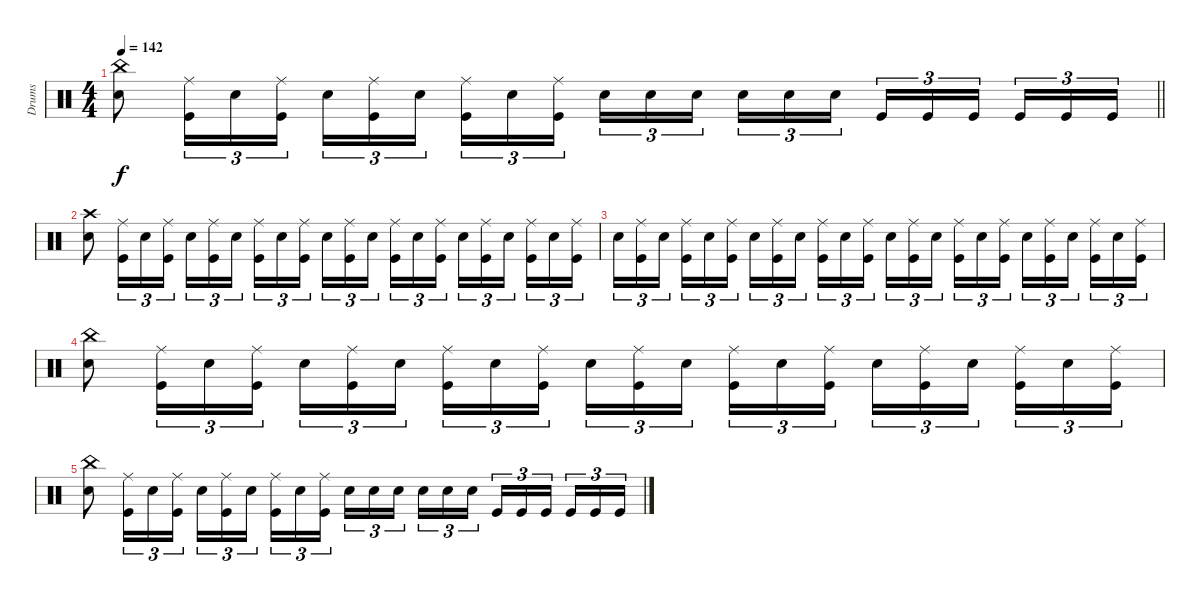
\track ("Drums" "Drums") {instrument percussion}
\staff
\articulation defaults
\ts (4 4)
\tempo 142
\clef neutral
\barLineRight lightlight
\ks c
("China (hit)" "Electric Snare (hit)").8{dy f} ("Ride (middle)" "Kick (hit)").16{tu (3 2)} "Electric Snare (hit)".16{tu (3 2)} ("Ride (middle)" "Kick (hit)").16{tu (3 2)} "Electric Snare (hit)".16{tu (3 2)} ("Ride (middle)" "Kick (hit)").16{tu (3 2)} "Electric Snare (hit)".16{tu (3 2) beam splitsecondary} ("Ride (middle)" "Kick (hit)").16{tu (3 2)} "Electric Snare (hit)".16{tu (3 2)} ("Ride (middle)" "Kick (hit)").16{tu (3 2)} "Electric Snare (hit)".16{tu (3 2)} "Electric Snare (hit)".16{tu (3 2)} "Electric Snare (hit)".16{tu (3 2) beam splitsecondary} "Electric Snare (hit)".16{tu (3 2)} "Electric Snare (hit)".16{tu (3 2)} "Electric Snare (hit)".16{tu (3 2)} "Kick (hit)".16{tu (3 2)} "Kick (hit)".16{tu (3 2)} "Kick (hit)".16{tu (3 2) beam splitsecondary} "Kick (hit)".16{tu (3 2)} "Kick (hit)".16{tu (3 2)} "Kick (hit)".16{tu (3 2)} |
("Crash high (hit)" "Electric Snare (hit)").8 ("Ride (middle)" "Kick (hit)").16{tu (3 2)} "Electric Snare (hit)".16{tu (3 2)} ("Ride (middle)" "Kick (hit)").16{tu (3 2)} "Electric Snare (hit)".16{tu (3 2)} ("Ride (middle)" "Kick (hit)").16{tu (3 2)} "Electric Snare (hit)".16{tu (3 2) beam splitsecondary} ("Ride (middle)" "Kick (hit)").16{tu (3 2)} "Electric Snare (hit)".16{tu (3 2)} ("Ride (middle)" "Kick (hit)").16{tu (3 2)} "Electric Snare (hit)".16{tu (3 2)} ("Ride (middle)" "Kick (hit)").16{tu (3 2)} "Electric Snare (hit)".16{tu (3 2) beam splitsecondary} ("Ride (middle)" "Kick (hit)").16{tu (3 2)} "Electric Snare (hit)".16{tu (3 2)} ("Ride (middle)" "Kick (hit)").16{tu (3 2)} "Electric Snare (hit)".16{tu (3 2)} ("Ride (middle)" "Kick (hit)").16{tu (3 2)} "Electric Snare (hit)".16{tu (3 2) beam splitsecondary} ("Ride (middle)" "Kick (hit)").16{tu (3 2)} "Electric Snare (hit)".16{tu (3 2)} ("Ride (middle)" "Kick (hit)").16{tu (3 2)} |
"Electric Snare (hit)".16{tu (3 2)} ("Ride (middle)" "Kick (hit)").16{tu (3 2)} "Electric Snare (hit)".16{tu (3 2) beam splitsecondary} ("Ride (middle)" "Kick (hit)").16{tu (3 2)} "Electric Snare (hit)".16{tu (3 2)} ("Ride (middle)" "Kick (hit)").16{tu (3 2)} "Electric Snare (hit)".16{tu (3 2)} ("Ride (middle)" "Kick (hit)").16{tu (3 2)} "Electric Snare (hit)".16{tu (3 2) beam splitsecondary} ("Ride (middle)" "Kick (hit)").16{tu (3 2)} "Electric Snare (hit)".16{tu (3 2)} ("Ride (middle)" "Kick (hit)").16{tu (3 2)} "Electric Snare (hit)".16{tu (3 2)} ("Ride (middle)" "Kick (hit)").16{tu (3 2)} "Electric Snare (hit)".16{tu (3 2) beam splitsecondary} ("Ride (middle)" "Kick (hit)").16{tu (3 2)} "Electric Snare (hit)".16{tu (3 2)} ("Ride (middle)" "Kick (hit)").16{tu (3 2)} "Electric Snare (hit)".16{tu (3 2)} ("Ride (middle)" "Kick (hit)").16{tu (3 2)} "Electric Snare (hit)".16{tu (3 2) beam splitsecondary} ("Ride (middle)" "Kick (hit)").16{tu (3 2)} "Electric Snare (hit)".16{tu (3 2)} ("Ride (middle)" "Kick (hit)").16{tu (3 2)} |
("China (hit)" "Electric Snare (hit)").8 ("Ride (middle)" "Kick (hit)").16{tu (3 2)} "Electric Snare (hit)".16{tu (3 2)} ("Ride (middle)" "Kick (hit)").16{tu (3 2)} "Electric Snare (hit)".16{tu (3 2)} ("Ride (middle)" "Kick (hit)").16{tu (3 2)} "Electric Snare (hit)".16{tu (3 2) beam splitsecondary} ("Ride (middle)" "Kick (hit)").16{tu (3 2)} "Electric Snare (hit)".16{tu (3 2)} ("Ride (middle)" "Kick (hit)").16{tu (3 2)} "Electric Snare (hit)".16{tu (3 2)} ("Ride (middle)" "Kick (hit)").16{tu (3 2)} "Electric Snare (hit)".16{tu (3 2) beam splitsecondary} ("Ride (middle)" "Kick (hit)").16{tu (3 2)} "Electric Snare (hit)".16{tu (3 2)} ("Ride (middle)" "Kick (hit)").16{tu (3 2)} "Electric Snare (hit)".16{tu (3 2)} ("Ride (middle)" "Kick (hit)").16{tu (3 2)} "Electric Snare (hit)".16{tu (3 2) beam splitsecondary} ("Ride (middle)" "Kick (hit)").16{tu (3 2)} "Electric Snare (hit)".16{tu (3 2)} ("Ride (middle)" "Kick (hit)").16{tu (3 2)} |
("China (hit)" "Electric Snare (hit)").8 ("Ride (middle)" "Kick (hit)").16{tu (3 2)} "Electric Snare (hit)".16{tu (3 2)} ("Ride (middle)" "Kick (hit)").16{tu (3 2)} "Electric Snare (hit)".16{tu (3 2)} ("Ride (middle)" "Kick (hit)").16{tu (3 2)} "Electric Snare (hit)".16{tu (3 2) beam splitsecondary} ("Ride (middle)" "Kick (hit)").16{tu (3 2)} "Electric Snare (hit)".16{tu (3 2)} ("Ride (middle)" "Kick (hit)").16{tu (3 2)} "Electric Snare (hit)".16{tu (3 2)} "Electric Snare (hit)".16{tu (3 2)} "Electric Snare (hit)".16{tu (3 2) beam splitsecondary} "Electric Snare (hit)".16{tu (3 2)} "Electric Snare (hit)".16{tu (3 2)} "Electric Snare (hit)".16{tu (3 2)} "Kick (hit)".16{tu (3 2)} "Kick (hit)".16{tu (3 2)} "Kick (hit)".16{tu (3 2) beam splitsecondary} "Kick (hit)".16{tu (3 2)} "Kick (hit)".16{tu (3 2)} "Kick (hit)".16{tu (3 2)}
